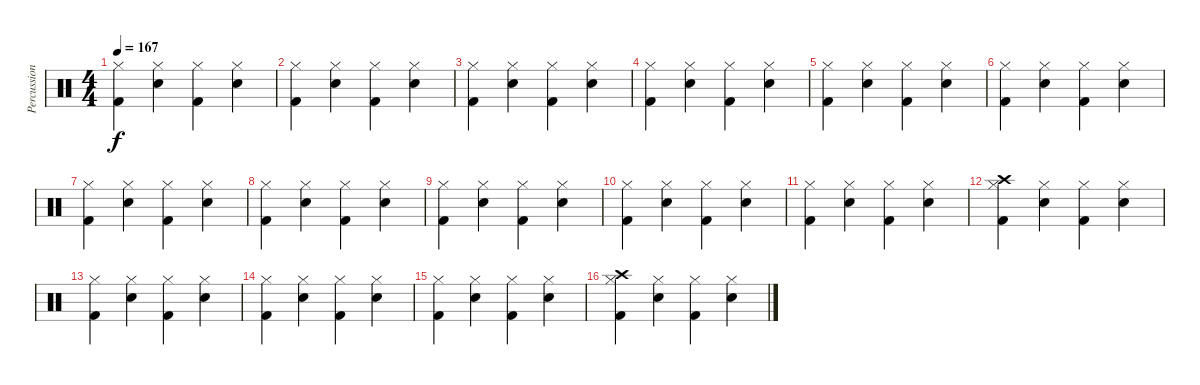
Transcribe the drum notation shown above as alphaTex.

\track ("Percussion" "Percussion") {instrument percussion}
\staff {score}
\articulation defaults
\ts (4 4)
\tempo 167
\clef neutral
\ks c
("Kick (hit) 2" "Hi-Hat (closed)").4{dy f} ("Hi-Hat (closed)" "Electric Snare (hit)").4 ("Kick (hit) 2" "Hi-Hat (closed)").4 ("Hi-Hat (closed)" "Electric Snare (hit)").4 |
("Kick (hit) 2" "Hi-Hat (closed)").4 ("Hi-Hat (closed)" "Electric Snare (hit)").4 ("Kick (hit) 2" "Hi-Hat (closed)").4 ("Hi-Hat (closed)" "Electric Snare (hit)").4 |
("Kick (hit) 2" "Hi-Hat (closed)").4 ("Hi-Hat (closed)" "Electric Snare (hit)").4 ("Kick (hit) 2" "Hi-Hat (closed)").4 ("Hi-Hat (closed)" "Electric Snare (hit)").4 |
("Kick (hit) 2" "Hi-Hat (closed)").4 ("Hi-Hat (closed)" "Electric Snare (hit)").4 ("Kick (hit) 2" "Hi-Hat (closed)").4 ("Hi-Hat (closed)" "Electric Snare (hit)").4 |
("Kick (hit) 2" "Hi-Hat (closed)").4 ("Hi-Hat (closed)" "Electric Snare (hit)").4 ("Kick (hit) 2" "Hi-Hat (closed)").4 ("Hi-Hat (closed)" "Electric Snare (hit)").4 |
("Kick (hit) 2" "Hi-Hat (closed)").4 ("Hi-Hat (closed)" "Electric Snare (hit)").4 ("Kick (hit) 2" "Hi-Hat (closed)").4 ("Hi-Hat (closed)" "Electric Snare (hit)").4 |
("Kick (hit) 2" "Hi-Hat (closed)").4 ("Hi-Hat (closed)" "Electric Snare (hit)").4 ("Kick (hit) 2" "Hi-Hat (closed)").4 ("Hi-Hat (closed)" "Electric Snare (hit)").4 |
("Kick (hit) 2" "Hi-Hat (closed)").4 ("Hi-Hat (closed)" "Electric Snare (hit)").4 ("Kick (hit) 2" "Hi-Hat (closed)").4 ("Hi-Hat (closed)" "Electric Snare (hit)").4 |
("Kick (hit) 2" "Hi-Hat (closed)").4 ("Hi-Hat (closed)" "Electric Snare (hit)").4 ("Kick (hit) 2" "Hi-Hat (closed)").4 ("Hi-Hat (closed)" "Electric Snare (hit)").4 |
("Kick (hit) 2" "Hi-Hat (closed)").4 ("Hi-Hat (closed)" "Electric Snare (hit)").4 ("Kick (hit) 2" "Hi-Hat (closed)").4 ("Hi-Hat (closed)" "Electric Snare (hit)").4 |
("Kick (hit) 2" "Hi-Hat (closed)").4 ("Hi-Hat (closed)" "Electric Snare (hit)").4 ("Kick (hit) 2" "Hi-Hat (closed)").4 ("Hi-Hat (closed)" "Electric Snare (hit)").4 |
("Kick (hit) 2" "Hi-Hat (closed)" "Crash high (hit)").4 ("Hi-Hat (closed)" "Electric Snare (hit)").4 ("Kick (hit) 2" "Hi-Hat (closed)").4 ("Hi-Hat (closed)" "Electric Snare (hit)").4 |
("Kick (hit) 2" "Hi-Hat (closed)").4 ("Hi-Hat (closed)" "Electric Snare (hit)").4 ("Kick (hit) 2" "Hi-Hat (closed)").4 ("Hi-Hat (closed)" "Electric Snare (hit)").4 |
("Kick (hit) 2" "Hi-Hat (closed)").4 ("Hi-Hat (closed)" "Electric Snare (hit)").4 ("Kick (hit) 2" "Hi-Hat (closed)").4 ("Hi-Hat (closed)" "Electric Snare (hit)").4 |
("Kick (hit) 2" "Hi-Hat (closed)").4 ("Hi-Hat (closed)" "Electric Snare (hit)").4 ("Kick (hit) 2" "Hi-Hat (closed)").4 ("Hi-Hat (closed)" "Electric Snare (hit)").4 |
("Kick (hit) 2" "Hi-Hat (closed)" "Crash high (hit)").4 ("Hi-Hat (closed)" "Electric Snare (hit)").4 ("Kick (hit) 2" "Hi-Hat (closed)").4 ("Hi-Hat (closed)" "Electric Snare (hit)").4
